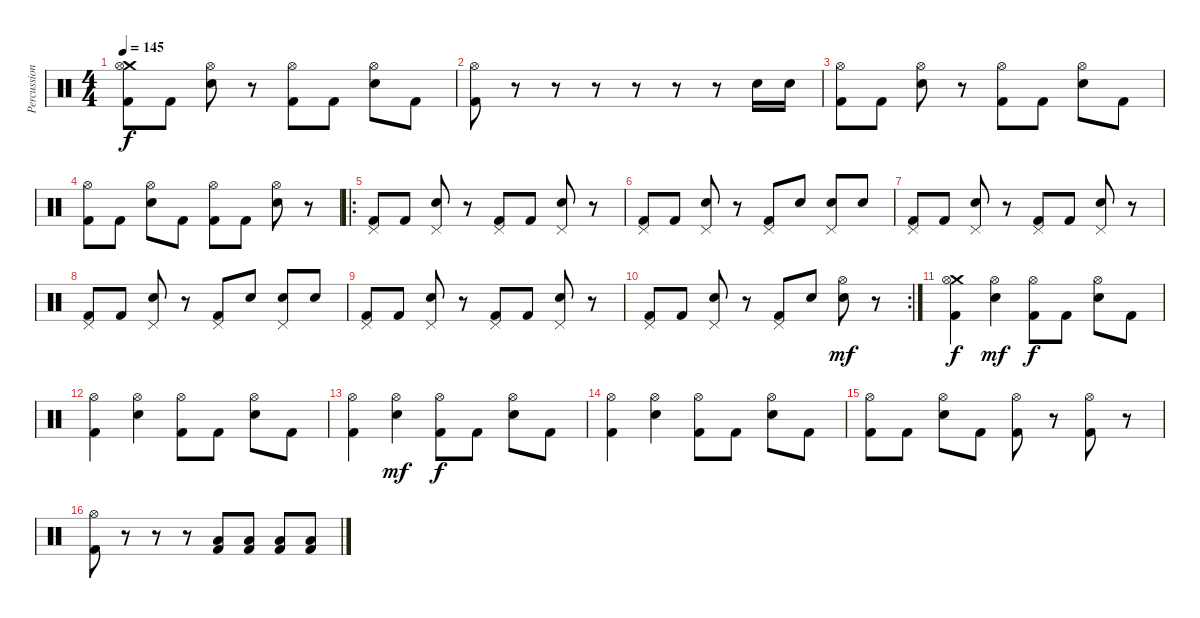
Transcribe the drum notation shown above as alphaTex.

\track ("Percussion" "Percussion") {instrument percussion}
\staff {score}
\articulation defaults
\ts (4 4)
\tempo 145
\clef neutral
\ks c
("Crash medium (hit)" "Hi-Hat (open)" "Kick (hit) 2").8{dy f} "Kick (hit) 2".8 ("Hi-Hat (open)" "Electric Snare (hit)").8 r.8 ("Hi-Hat (open)" "Kick (hit) 2").8 "Kick (hit) 2".8 ("Hi-Hat (open)" "Electric Snare (hit)").8 "Kick (hit) 2".8 |
("Hi-Hat (open)" "Kick (hit) 2").8 r.8 r.8 r.8 r.8 r.8 r.8 "Electric Snare (hit)".16 "Electric Snare (hit)".16 |
("Hi-Hat (open)" "Kick (hit) 2").8 "Kick (hit) 2".8 ("Hi-Hat (open)" "Electric Snare (hit)").8 r.8 ("Hi-Hat (open)" "Kick (hit) 2").8 "Kick (hit) 2".8 ("Hi-Hat (open)" "Electric Snare (hit)").8 "Kick (hit) 2".8 |
("Hi-Hat (open)" "Kick (hit) 2").8 "Kick (hit) 2".8 ("Hi-Hat (open)" "Electric Snare (hit)").8 "Kick (hit) 2".8 ("Hi-Hat (open)" "Kick (hit) 2").8 "Kick (hit) 2".8 ("Hi-Hat (open)" "Electric Snare (hit)").8 r.8 |
\ro
("Pedal Hi-Hat (hit)" "Kick (hit) 2").8 "Kick (hit) 2".8 ("Pedal Hi-Hat (hit)" "Electric Snare (hit)").8 r.8 ("Pedal Hi-Hat (hit)" "Kick (hit) 2").8 "Kick (hit) 2".8 ("Pedal Hi-Hat (hit)" "Electric Snare (hit)").8 r.8 |
("Pedal Hi-Hat (hit)" "Kick (hit) 2").8 "Kick (hit) 2".8 ("Pedal Hi-Hat (hit)" "Electric Snare (hit)").8 r.8 ("Pedal Hi-Hat (hit)" "Kick (hit) 2").8 "Electric Snare (hit)".8 ("Pedal Hi-Hat (hit)" "Electric Snare (hit)").8 "Electric Snare (hit)".8 |
("Pedal Hi-Hat (hit)" "Kick (hit) 2").8 "Kick (hit) 2".8 ("Pedal Hi-Hat (hit)" "Electric Snare (hit)").8 r.8 ("Pedal Hi-Hat (hit)" "Kick (hit) 2").8 "Kick (hit) 2".8 ("Pedal Hi-Hat (hit)" "Electric Snare (hit)").8 r.8 |
("Pedal Hi-Hat (hit)" "Kick (hit) 2").8 "Kick (hit) 2".8 ("Pedal Hi-Hat (hit)" "Electric Snare (hit)").8 r.8 ("Pedal Hi-Hat (hit)" "Kick (hit) 2").8 "Electric Snare (hit)".8 ("Pedal Hi-Hat (hit)" "Electric Snare (hit)").8 "Electric Snare (hit)".8 |
("Pedal Hi-Hat (hit)" "Kick (hit) 2").8 "Kick (hit) 2".8 ("Pedal Hi-Hat (hit)" "Electric Snare (hit)").8 r.8 ("Pedal Hi-Hat (hit)" "Kick (hit) 2").8 "Kick (hit) 2".8 ("Pedal Hi-Hat (hit)" "Electric Snare (hit)").8 r.8 |
\rc 2
("Pedal Hi-Hat (hit)" "Kick (hit) 2").8 "Kick (hit) 2".8 ("Pedal Hi-Hat (hit)" "Electric Snare (hit)").8 r.8 ("Pedal Hi-Hat (hit)" "Kick (hit) 2").8 "Electric Snare (hit)".8 ("Hi-Hat (open)" "Electric Snare (hit)").8{dy mf} r.8 |
("Crash medium (hit)" "Hi-Hat (open)" "Kick (hit) 2").4{dy f} ("Hi-Hat (open)" "Electric Snare (hit)").4{dy mf} ("Hi-Hat (open)" "Kick (hit) 2").8{dy f} "Kick (hit) 2".8 ("Hi-Hat (open)" "Electric Snare (hit)").8 "Kick (hit) 2".8 |
("Hi-Hat (open)" "Kick (hit) 2").4 ("Hi-Hat (open)" "Electric Snare (hit)").4 ("Hi-Hat (open)" "Kick (hit) 2").8 "Kick (hit) 2".8 ("Hi-Hat (open)" "Electric Snare (hit)").8 "Kick (hit) 2".8 |
("Hi-Hat (open)" "Kick (hit) 2").4 ("Hi-Hat (open)" "Electric Snare (hit)").4{dy mf} ("Hi-Hat (open)" "Kick (hit) 2").8{dy f} "Kick (hit) 2".8 ("Hi-Hat (open)" "Electric Snare (hit)").8 "Kick (hit) 2".8 |
("Hi-Hat (open)" "Kick (hit) 2").4 ("Hi-Hat (open)" "Electric Snare (hit)").4 ("Hi-Hat (open)" "Kick (hit) 2").8 "Kick (hit) 2".8 ("Hi-Hat (open)" "Electric Snare (hit)").8 "Kick (hit) 2".8 |
("Hi-Hat (open)" "Kick (hit) 2").8 "Kick (hit) 2".8 ("Hi-Hat (open)" "Electric Snare (hit)").8 "Kick (hit) 2".8 ("Hi-Hat (open)" "Kick (hit) 2").8 r.8 ("Hi-Hat (open)" "Kick (hit) 2").8 r.8 |
("Hi-Hat (open)" "Kick (hit) 2").8 r.8 r.8 r.8 ("Low Floor Tom (hit)" "Kick (hit) 2").8 ("Low Floor Tom (hit)" "Kick (hit) 2").8 ("Low Floor Tom (hit)" "Kick (hit) 2").8 ("Low Floor Tom (hit)" "Kick (hit) 2").8
